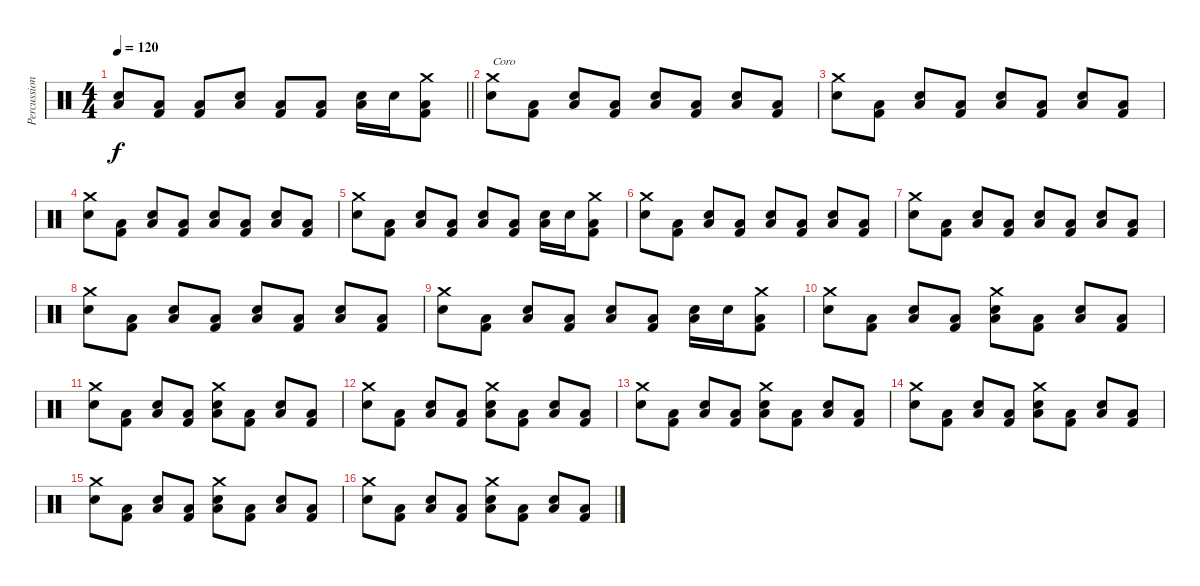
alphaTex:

\track ("Percussion" "Percussion") {instrument percussion}
\staff {score}
\articulation defaults
\ts (4 4)
\tempo 120
\clef neutral
\barLineRight lightlight
\ks c
("Snare (hit) 2" "Low Floor Tom (hit)").8{dy f} ("Low Floor Tom (hit)" "Kick (hit) 2").8 ("Low Floor Tom (hit)" "Kick (hit) 2").8 ("Snare (hit) 2" "Low Floor Tom (hit)").8 ("Low Floor Tom (hit)" "Kick (hit) 2").8 ("Low Floor Tom (hit)" "Kick (hit) 2").8 ("Snare (hit) 2" "Low Floor Tom (hit)").16 "Snare (hit) 2".16 ("Crash medium (hit)" "Low Floor Tom (hit)" "Kick (hit) 2").8 |
("Crash medium (hit)" "Snare (hit) 2").8{txt "Coro"} ("Low Floor Tom (hit)" "Kick (hit) 2").8 ("Snare (hit) 2" "Low Floor Tom (hit)").8 ("Low Floor Tom (hit)" "Kick (hit) 2").8 ("Snare (hit) 2" "Low Floor Tom (hit)").8 ("Low Floor Tom (hit)" "Kick (hit) 2").8 ("Snare (hit) 2" "Low Floor Tom (hit)").8 ("Low Floor Tom (hit)" "Kick (hit) 2").8 |
("Crash medium (hit)" "Snare (hit) 2").8 ("Low Floor Tom (hit)" "Kick (hit) 2").8 ("Snare (hit) 2" "Low Floor Tom (hit)").8 ("Low Floor Tom (hit)" "Kick (hit) 2").8 ("Snare (hit) 2" "Low Floor Tom (hit)").8 ("Low Floor Tom (hit)" "Kick (hit) 2").8 ("Snare (hit) 2" "Low Floor Tom (hit)").8 ("Low Floor Tom (hit)" "Kick (hit) 2").8 |
("Crash medium (hit)" "Snare (hit) 2").8 ("Low Floor Tom (hit)" "Kick (hit) 2").8 ("Snare (hit) 2" "Low Floor Tom (hit)").8 ("Low Floor Tom (hit)" "Kick (hit) 2").8 ("Snare (hit) 2" "Low Floor Tom (hit)").8 ("Low Floor Tom (hit)" "Kick (hit) 2").8 ("Snare (hit) 2" "Low Floor Tom (hit)").8 ("Low Floor Tom (hit)" "Kick (hit) 2").8 |
("Crash medium (hit)" "Snare (hit) 2").8 ("Low Floor Tom (hit)" "Kick (hit) 2").8 ("Snare (hit) 2" "Low Floor Tom (hit)").8 ("Low Floor Tom (hit)" "Kick (hit) 2").8 ("Snare (hit) 2" "Low Floor Tom (hit)").8 ("Low Floor Tom (hit)" "Kick (hit) 2").8 ("Snare (hit) 2" "Low Floor Tom (hit)").16 "Snare (hit) 2".16 ("Crash medium (hit)" "Low Floor Tom (hit)" "Kick (hit) 2").8 |
("Crash medium (hit)" "Snare (hit) 2").8 ("Low Floor Tom (hit)" "Kick (hit) 2").8 ("Snare (hit) 2" "Low Floor Tom (hit)").8 ("Low Floor Tom (hit)" "Kick (hit) 2").8 ("Snare (hit) 2" "Low Floor Tom (hit)").8 ("Low Floor Tom (hit)" "Kick (hit) 2").8 ("Snare (hit) 2" "Low Floor Tom (hit)").8 ("Low Floor Tom (hit)" "Kick (hit) 2").8 |
("Crash medium (hit)" "Snare (hit) 2").8 ("Low Floor Tom (hit)" "Kick (hit) 2").8 ("Snare (hit) 2" "Low Floor Tom (hit)").8 ("Low Floor Tom (hit)" "Kick (hit) 2").8 ("Snare (hit) 2" "Low Floor Tom (hit)").8 ("Low Floor Tom (hit)" "Kick (hit) 2").8 ("Snare (hit) 2" "Low Floor Tom (hit)").8 ("Low Floor Tom (hit)" "Kick (hit) 2").8 |
("Crash medium (hit)" "Snare (hit) 2").8 ("Low Floor Tom (hit)" "Kick (hit) 2").8 ("Snare (hit) 2" "Low Floor Tom (hit)").8 ("Low Floor Tom (hit)" "Kick (hit) 2").8 ("Snare (hit) 2" "Low Floor Tom (hit)").8 ("Low Floor Tom (hit)" "Kick (hit) 2").8 ("Snare (hit) 2" "Low Floor Tom (hit)").8 ("Low Floor Tom (hit)" "Kick (hit) 2").8 |
("Crash medium (hit)" "Snare (hit) 2").8 ("Low Floor Tom (hit)" "Kick (hit) 2").8 ("Snare (hit) 2" "Low Floor Tom (hit)").8 ("Low Floor Tom (hit)" "Kick (hit) 2").8 ("Snare (hit) 2" "Low Floor Tom (hit)").8 ("Low Floor Tom (hit)" "Kick (hit) 2").8 ("Snare (hit) 2" "Low Floor Tom (hit)").16 "Snare (hit) 2".16 ("Crash medium (hit)" "Low Floor Tom (hit)" "Kick (hit) 2").8 |
("Crash medium (hit)" "Snare (hit) 2").8 ("Low Floor Tom (hit)" "Kick (hit) 2").8 ("Snare (hit) 2" "Low Floor Tom (hit)").8 ("Low Floor Tom (hit)" "Kick (hit) 2").8 ("Crash medium (hit)" "Snare (hit) 2" "Low Floor Tom (hit)").8 ("Low Floor Tom (hit)" "Kick (hit) 2").8 ("Snare (hit) 2" "Low Floor Tom (hit)").8 ("Low Floor Tom (hit)" "Kick (hit) 2").8 |
("Crash medium (hit)" "Snare (hit) 2").8 ("Low Floor Tom (hit)" "Kick (hit) 2").8 ("Snare (hit) 2" "Low Floor Tom (hit)").8 ("Low Floor Tom (hit)" "Kick (hit) 2").8 ("Crash medium (hit)" "Snare (hit) 2" "Low Floor Tom (hit)").8 ("Low Floor Tom (hit)" "Kick (hit) 2").8 ("Snare (hit) 2" "Low Floor Tom (hit)").8 ("Low Floor Tom (hit)" "Kick (hit) 2").8 |
("Crash medium (hit)" "Snare (hit) 2").8 ("Low Floor Tom (hit)" "Kick (hit) 2").8 ("Snare (hit) 2" "Low Floor Tom (hit)").8 ("Low Floor Tom (hit)" "Kick (hit) 2").8 ("Crash medium (hit)" "Snare (hit) 2" "Low Floor Tom (hit)").8 ("Low Floor Tom (hit)" "Kick (hit) 2").8 ("Snare (hit) 2" "Low Floor Tom (hit)").8 ("Low Floor Tom (hit)" "Kick (hit) 2").8 |
("Crash medium (hit)" "Snare (hit) 2").8 ("Low Floor Tom (hit)" "Kick (hit) 2").8 ("Snare (hit) 2" "Low Floor Tom (hit)").8 ("Low Floor Tom (hit)" "Kick (hit) 2").8 ("Crash medium (hit)" "Snare (hit) 2" "Low Floor Tom (hit)").8 ("Low Floor Tom (hit)" "Kick (hit) 2").8 ("Snare (hit) 2" "Low Floor Tom (hit)").8 ("Low Floor Tom (hit)" "Kick (hit) 2").8 |
("Crash medium (hit)" "Snare (hit) 2").8 ("Low Floor Tom (hit)" "Kick (hit) 2").8 ("Snare (hit) 2" "Low Floor Tom (hit)").8 ("Low Floor Tom (hit)" "Kick (hit) 2").8 ("Crash medium (hit)" "Snare (hit) 2" "Low Floor Tom (hit)").8 ("Low Floor Tom (hit)" "Kick (hit) 2").8 ("Snare (hit) 2" "Low Floor Tom (hit)").8 ("Low Floor Tom (hit)" "Kick (hit) 2").8 |
("Crash medium (hit)" "Snare (hit) 2").8 ("Low Floor Tom (hit)" "Kick (hit) 2").8 ("Snare (hit) 2" "Low Floor Tom (hit)").8 ("Low Floor Tom (hit)" "Kick (hit) 2").8 ("Crash medium (hit)" "Snare (hit) 2" "Low Floor Tom (hit)").8 ("Low Floor Tom (hit)" "Kick (hit) 2").8 ("Snare (hit) 2" "Low Floor Tom (hit)").8 ("Low Floor Tom (hit)" "Kick (hit) 2").8 |
("Crash medium (hit)" "Snare (hit) 2").8 ("Low Floor Tom (hit)" "Kick (hit) 2").8 ("Snare (hit) 2" "Low Floor Tom (hit)").8 ("Low Floor Tom (hit)" "Kick (hit) 2").8 ("Crash medium (hit)" "Snare (hit) 2" "Low Floor Tom (hit)").8 ("Low Floor Tom (hit)" "Kick (hit) 2").8 ("Snare (hit) 2" "Low Floor Tom (hit)").8 ("Low Floor Tom (hit)" "Kick (hit) 2").8
